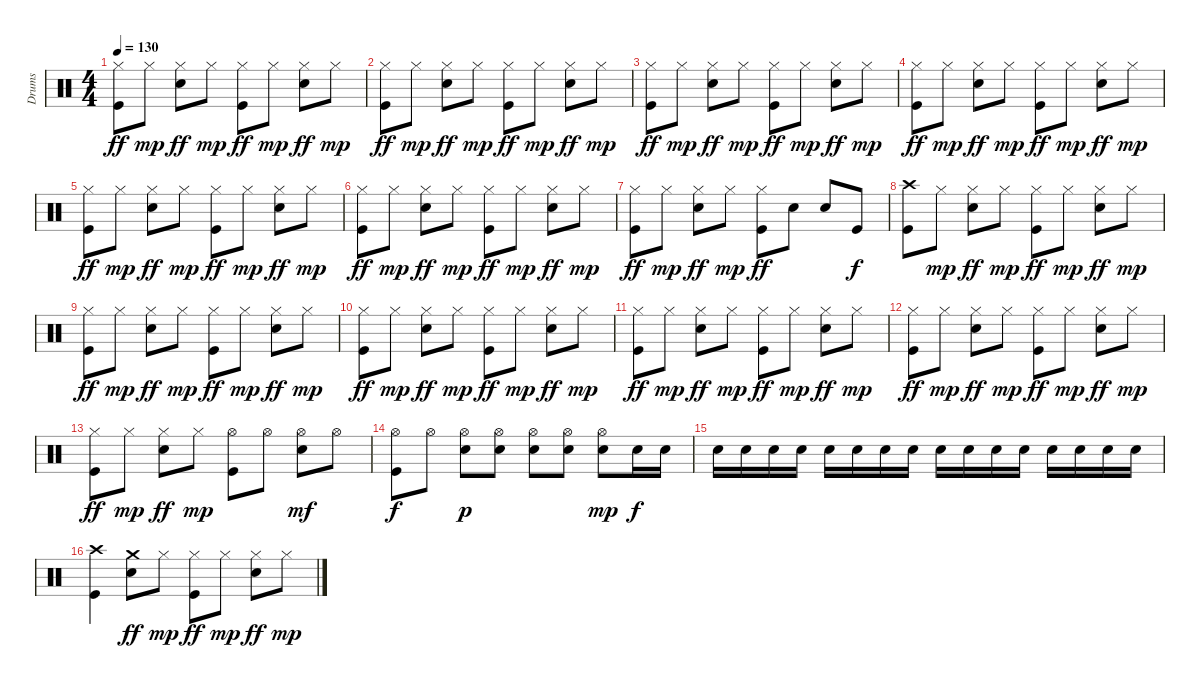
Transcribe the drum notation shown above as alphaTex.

\track ("Drums" "Drums") {instrument percussion}
\staff {score}
\articulation defaults
\ts (4 4)
\tempo 130
\clef neutral
\ks c
("Hi-Hat (closed)" "Kick (hit)").8{dy ff} "Hi-Hat (closed)".8{dy mp} ("Hi-Hat (closed)" "Snare (hit) 2").8{dy ff} "Hi-Hat (closed)".8{dy mp} ("Hi-Hat (closed)" "Kick (hit)").8{dy ff} "Hi-Hat (closed)".8{dy mp} ("Hi-Hat (closed)" "Snare (hit) 2").8{dy ff} "Hi-Hat (closed)".8{dy mp} |
("Hi-Hat (closed)" "Kick (hit)").8{dy ff} "Hi-Hat (closed)".8{dy mp} ("Hi-Hat (closed)" "Snare (hit) 2").8{dy ff} "Hi-Hat (closed)".8{dy mp} ("Hi-Hat (closed)" "Kick (hit)").8{dy ff} "Hi-Hat (closed)".8{dy mp} ("Hi-Hat (closed)" "Snare (hit) 2").8{dy ff} "Hi-Hat (closed)".8{dy mp} |
("Hi-Hat (closed)" "Kick (hit)").8{dy ff} "Hi-Hat (closed)".8{dy mp} ("Hi-Hat (closed)" "Snare (hit) 2").8{dy ff} "Hi-Hat (closed)".8{dy mp} ("Hi-Hat (closed)" "Kick (hit)").8{dy ff} "Hi-Hat (closed)".8{dy mp} ("Hi-Hat (closed)" "Snare (hit) 2").8{dy ff} "Hi-Hat (closed)".8{dy mp} |
("Hi-Hat (closed)" "Kick (hit)").8{dy ff} "Hi-Hat (closed)".8{dy mp} ("Hi-Hat (closed)" "Snare (hit) 2").8{dy ff} "Hi-Hat (closed)".8{dy mp} ("Hi-Hat (closed)" "Kick (hit)").8{dy ff} "Hi-Hat (closed)".8{dy mp} ("Hi-Hat (closed)" "Snare (hit) 2").8{dy ff} "Hi-Hat (closed)".8{dy mp} |
("Hi-Hat (closed)" "Kick (hit)").8{dy ff} "Hi-Hat (closed)".8{dy mp} ("Hi-Hat (closed)" "Snare (hit) 2").8{dy ff} "Hi-Hat (closed)".8{dy mp} ("Hi-Hat (closed)" "Kick (hit)").8{dy ff} "Hi-Hat (closed)".8{dy mp} ("Hi-Hat (closed)" "Snare (hit) 2").8{dy ff} "Hi-Hat (closed)".8{dy mp} |
("Hi-Hat (closed)" "Kick (hit)").8{dy ff} "Hi-Hat (closed)".8{dy mp} ("Hi-Hat (closed)" "Snare (hit) 2").8{dy ff} "Hi-Hat (closed)".8{dy mp} ("Hi-Hat (closed)" "Kick (hit)").8{dy ff} "Hi-Hat (closed)".8{dy mp} ("Hi-Hat (closed)" "Snare (hit) 2").8{dy ff} "Hi-Hat (closed)".8{dy mp} |
("Hi-Hat (closed)" "Kick (hit)").8{dy ff} "Hi-Hat (closed)".8{dy mp} ("Hi-Hat (closed)" "Snare (hit) 2").8{dy ff} "Hi-Hat (closed)".8{dy mp} ("Hi-Hat (closed)" "Kick (hit)").8{dy ff} "Snare (hit) 2".8 "Snare (hit) 2".8 "Kick (hit)".8{dy f} |
("Crash high (hit)" "Kick (hit)").8 "Hi-Hat (closed)".8{dy mp} ("Hi-Hat (closed)" "Snare (hit) 2").8{dy ff} "Hi-Hat (closed)".8{dy mp} ("Hi-Hat (closed)" "Kick (hit)").8{dy ff} "Hi-Hat (closed)".8{dy mp} ("Hi-Hat (closed)" "Snare (hit) 2").8{dy ff} "Hi-Hat (closed)".8{dy mp} |
("Hi-Hat (closed)" "Kick (hit)").8{dy ff} "Hi-Hat (closed)".8{dy mp} ("Hi-Hat (closed)" "Snare (hit) 2").8{dy ff} "Hi-Hat (closed)".8{dy mp} ("Hi-Hat (closed)" "Kick (hit)").8{dy ff} "Hi-Hat (closed)".8{dy mp} ("Hi-Hat (closed)" "Snare (hit) 2").8{dy ff} "Hi-Hat (closed)".8{dy mp} |
("Hi-Hat (closed)" "Kick (hit)").8{dy ff} "Hi-Hat (closed)".8{dy mp} ("Hi-Hat (closed)" "Snare (hit) 2").8{dy ff} "Hi-Hat (closed)".8{dy mp} ("Hi-Hat (closed)" "Kick (hit)").8{dy ff} "Hi-Hat (closed)".8{dy mp} ("Hi-Hat (closed)" "Snare (hit) 2").8{dy ff} "Hi-Hat (closed)".8{dy mp} |
("Hi-Hat (closed)" "Kick (hit)").8{dy ff} "Hi-Hat (closed)".8{dy mp} ("Hi-Hat (closed)" "Snare (hit) 2").8{dy ff} "Hi-Hat (closed)".8{dy mp} ("Hi-Hat (closed)" "Kick (hit)").8{dy ff} "Hi-Hat (closed)".8{dy mp} ("Hi-Hat (closed)" "Snare (hit) 2").8{dy ff} "Hi-Hat (closed)".8{dy mp} |
("Hi-Hat (closed)" "Kick (hit)").8{dy ff} "Hi-Hat (closed)".8{dy mp} ("Hi-Hat (closed)" "Snare (hit) 2").8{dy ff} "Hi-Hat (closed)".8{dy mp} ("Hi-Hat (closed)" "Kick (hit)").8{dy ff} "Hi-Hat (closed)".8{dy mp} ("Hi-Hat (closed)" "Snare (hit) 2").8{dy ff} "Hi-Hat (closed)".8{dy mp} |
("Hi-Hat (closed)" "Kick (hit)").8{dy ff} "Hi-Hat (closed)".8{dy mp} ("Hi-Hat (closed)" "Snare (hit) 2").8{dy ff} "Hi-Hat (closed)".8{dy mp} ("Hi-Hat (open)" "Kick (hit)").8 "Hi-Hat (open)".8 ("Hi-Hat (open)" "Snare (hit) 2").8{dy mf} "Hi-Hat (open)".8 |
("Hi-Hat (open)" "Kick (hit)").8{dy f} "Hi-Hat (open)".8 ("Hi-Hat (open)" "Snare (hit) 2").8{dy p} ("Hi-Hat (open)" "Snare (hit) 2").8 ("Hi-Hat (open)" "Snare (hit) 2").8 ("Hi-Hat (open)" "Snare (hit) 2").8 ("Hi-Hat (open)" "Snare (hit) 2").8{dy mp} "Snare (hit) 2".16{dy f} "Snare (hit) 2".16 |
"Snare (hit) 2".16 "Snare (hit) 2".16 "Snare (hit) 2".16 "Snare (hit) 2".16 "Snare (hit) 2".16 "Snare (hit) 2".16 "Snare (hit) 2".16 "Snare (hit) 2".16 "Snare (hit) 2".16 "Snare (hit) 2".16 "Snare (hit) 2".16 "Snare (hit) 2".16 "Snare (hit) 2".16 "Snare (hit) 2".16 "Snare (hit) 2".16 "Snare (hit) 2".16 |
("Crash high (hit)" "Kick (hit)").4 ("Crash medium (hit)" "Snare (hit) 2").8{dy ff} "Hi-Hat (closed)".8{dy mp} ("Hi-Hat (closed)" "Kick (hit)").8{dy ff} "Hi-Hat (closed)".8{dy mp} ("Hi-Hat (closed)" "Snare (hit) 2").8{dy ff} "Hi-Hat (closed)".8{dy mp}
